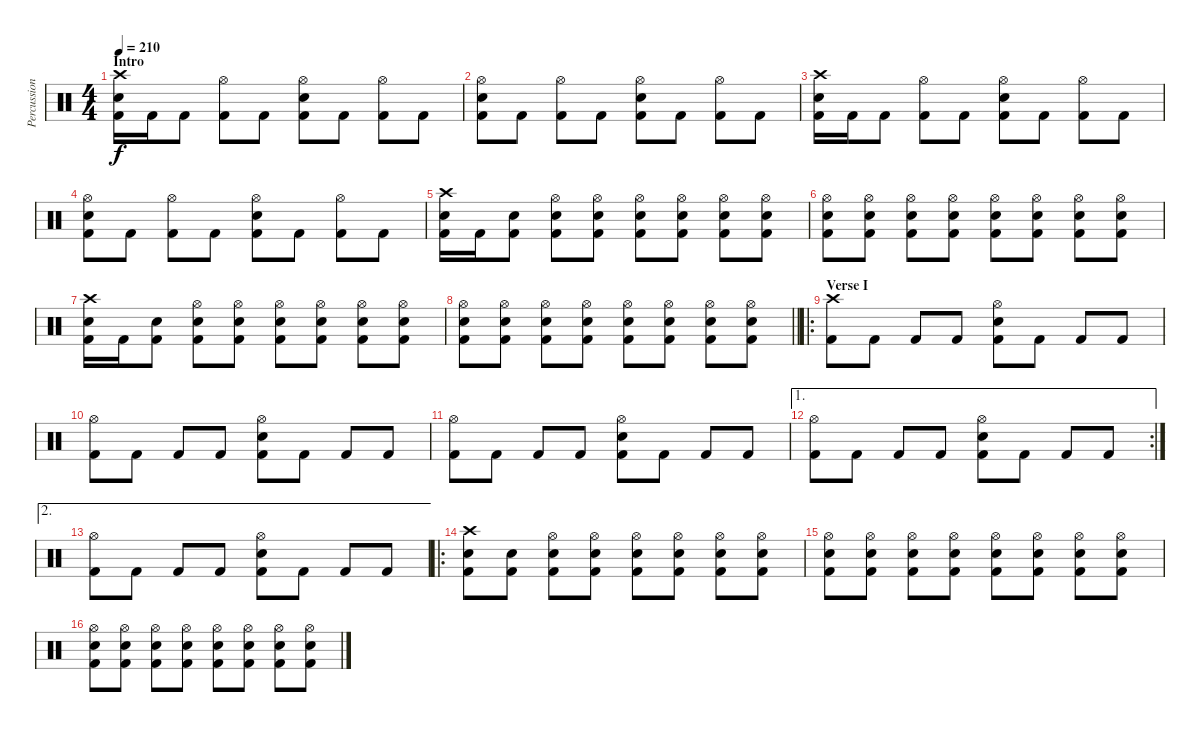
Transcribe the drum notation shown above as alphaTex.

\track ("Percussion" "Percussion") {instrument percussion}
\staff {score}
\articulation defaults
\ts (4 4)
\section ("" "Intro")
\tempo 210
\clef neutral
\ks c
("Crash high (hit)" "Snare (hit) 2" "Kick (hit) 2").16{dy f} "Kick (hit) 2".16 "Kick (hit) 2".8 ("Hi-Hat (open)" "Kick (hit) 2").8 "Kick (hit) 2".8 ("Hi-Hat (open)" "Snare (hit) 2" "Kick (hit) 2").8 "Kick (hit) 2".8 ("Hi-Hat (open)" "Kick (hit) 2").8 "Kick (hit) 2".8 |
("Hi-Hat (open)" "Snare (hit) 2" "Kick (hit) 2").8 "Kick (hit) 2".8 ("Hi-Hat (open)" "Kick (hit) 2").8 "Kick (hit) 2".8 ("Hi-Hat (open)" "Snare (hit) 2" "Kick (hit) 2").8 "Kick (hit) 2".8 ("Hi-Hat (open)" "Kick (hit) 2").8 "Kick (hit) 2".8 |
("Crash high (hit)" "Snare (hit) 2" "Kick (hit) 2").16 "Kick (hit) 2".16 "Kick (hit) 2".8 ("Hi-Hat (open)" "Kick (hit) 2").8 "Kick (hit) 2".8 ("Hi-Hat (open)" "Snare (hit) 2" "Kick (hit) 2").8 "Kick (hit) 2".8 ("Hi-Hat (open)" "Kick (hit) 2").8 "Kick (hit) 2".8 |
("Hi-Hat (open)" "Snare (hit) 2" "Kick (hit) 2").8 "Kick (hit) 2".8 ("Hi-Hat (open)" "Kick (hit) 2").8 "Kick (hit) 2".8 ("Hi-Hat (open)" "Snare (hit) 2" "Kick (hit) 2").8 "Kick (hit) 2".8 ("Hi-Hat (open)" "Kick (hit) 2").8 "Kick (hit) 2".8 |
("Crash high (hit)" "Snare (hit) 2" "Kick (hit) 2").16 "Kick (hit) 2".16 ("Snare (hit) 2" "Kick (hit) 2").8 ("Hi-Hat (open)" "Snare (hit) 2" "Kick (hit) 2").8 ("Hi-Hat (open)" "Snare (hit) 2" "Kick (hit) 2").8 ("Hi-Hat (open)" "Snare (hit) 2" "Kick (hit) 2").8 ("Hi-Hat (open)" "Snare (hit) 2" "Kick (hit) 2").8 ("Hi-Hat (open)" "Snare (hit) 2" "Kick (hit) 2").8 ("Hi-Hat (open)" "Snare (hit) 2" "Kick (hit) 2").8 |
("Hi-Hat (open)" "Snare (hit) 2" "Kick (hit) 2").8 ("Hi-Hat (open)" "Snare (hit) 2" "Kick (hit) 2").8 ("Hi-Hat (open)" "Snare (hit) 2" "Kick (hit) 2").8 ("Hi-Hat (open)" "Snare (hit) 2" "Kick (hit) 2").8 ("Hi-Hat (open)" "Snare (hit) 2" "Kick (hit) 2").8 ("Hi-Hat (open)" "Snare (hit) 2" "Kick (hit) 2").8 ("Hi-Hat (open)" "Snare (hit) 2" "Kick (hit) 2").8 ("Hi-Hat (open)" "Snare (hit) 2" "Kick (hit) 2").8 |
("Crash high (hit)" "Snare (hit) 2" "Kick (hit) 2").16 "Kick (hit) 2".16 ("Snare (hit) 2" "Kick (hit) 2").8 ("Hi-Hat (open)" "Snare (hit) 2" "Kick (hit) 2").8 ("Hi-Hat (open)" "Snare (hit) 2" "Kick (hit) 2").8 ("Hi-Hat (open)" "Snare (hit) 2" "Kick (hit) 2").8 ("Hi-Hat (open)" "Snare (hit) 2" "Kick (hit) 2").8 ("Hi-Hat (open)" "Snare (hit) 2" "Kick (hit) 2").8 ("Hi-Hat (open)" "Snare (hit) 2" "Kick (hit) 2").8 |
\barLineRight lightlight
("Hi-Hat (open)" "Snare (hit) 2" "Kick (hit) 2").8 ("Hi-Hat (open)" "Snare (hit) 2" "Kick (hit) 2").8 ("Hi-Hat (open)" "Snare (hit) 2" "Kick (hit) 2").8 ("Hi-Hat (open)" "Snare (hit) 2" "Kick (hit) 2").8 ("Hi-Hat (open)" "Snare (hit) 2" "Kick (hit) 2").8 ("Hi-Hat (open)" "Snare (hit) 2" "Kick (hit) 2").8 ("Hi-Hat (open)" "Snare (hit) 2" "Kick (hit) 2").8 ("Hi-Hat (open)" "Snare (hit) 2" "Kick (hit) 2").8 |
\ro
\section ("" "Verse I")
("Crash high (hit)" "Kick (hit) 2").8 "Kick (hit) 2".8 "Kick (hit) 2".8 "Kick (hit) 2".8 ("Hi-Hat (open)" "Snare (hit) 2" "Kick (hit) 2").8 "Kick (hit) 2".8 "Kick (hit) 2".8 "Kick (hit) 2".8 |
("Hi-Hat (open)" "Kick (hit) 2").8 "Kick (hit) 2".8 "Kick (hit) 2".8 "Kick (hit) 2".8 ("Hi-Hat (open)" "Snare (hit) 2" "Kick (hit) 2").8 "Kick (hit) 2".8 "Kick (hit) 2".8 "Kick (hit) 2".8 |
("Hi-Hat (open)" "Kick (hit) 2").8 "Kick (hit) 2".8 "Kick (hit) 2".8 "Kick (hit) 2".8 ("Hi-Hat (open)" "Snare (hit) 2" "Kick (hit) 2").8 "Kick (hit) 2".8 "Kick (hit) 2".8 "Kick (hit) 2".8 |
\ae 1
\rc 2
("Hi-Hat (open)" "Kick (hit) 2").8 "Kick (hit) 2".8 "Kick (hit) 2".8 "Kick (hit) 2".8 ("Hi-Hat (open)" "Snare (hit) 2" "Kick (hit) 2").8 "Kick (hit) 2".8 "Kick (hit) 2".8 "Kick (hit) 2".8 |
\ae 2
("Hi-Hat (open)" "Kick (hit) 2").8 "Kick (hit) 2".8 "Kick (hit) 2".8 "Kick (hit) 2".8 ("Hi-Hat (open)" "Snare (hit) 2" "Kick (hit) 2").8 "Kick (hit) 2".8 "Kick (hit) 2".8 "Kick (hit) 2".8 |
\ro
("Crash high (hit)" "Snare (hit) 2" "Kick (hit) 2").8 ("Snare (hit) 2" "Kick (hit) 2").8 ("Hi-Hat (open)" "Snare (hit) 2" "Kick (hit) 2").8 ("Hi-Hat (open)" "Snare (hit) 2" "Kick (hit) 2").8 ("Hi-Hat (open)" "Snare (hit) 2" "Kick (hit) 2").8 ("Hi-Hat (open)" "Snare (hit) 2" "Kick (hit) 2").8 ("Hi-Hat (open)" "Snare (hit) 2" "Kick (hit) 2").8 ("Hi-Hat (open)" "Snare (hit) 2" "Kick (hit) 2").8 |
("Hi-Hat (open)" "Snare (hit) 2" "Kick (hit) 2").8 ("Hi-Hat (open)" "Snare (hit) 2" "Kick (hit) 2").8 ("Hi-Hat (open)" "Snare (hit) 2" "Kick (hit) 2").8 ("Hi-Hat (open)" "Snare (hit) 2" "Kick (hit) 2").8 ("Hi-Hat (open)" "Snare (hit) 2" "Kick (hit) 2").8 ("Hi-Hat (open)" "Snare (hit) 2" "Kick (hit) 2").8 ("Hi-Hat (open)" "Snare (hit) 2" "Kick (hit) 2").8 ("Hi-Hat (open)" "Snare (hit) 2" "Kick (hit) 2").8 |
("Hi-Hat (open)" "Snare (hit) 2" "Kick (hit) 2").8 ("Hi-Hat (open)" "Snare (hit) 2" "Kick (hit) 2").8 ("Hi-Hat (open)" "Snare (hit) 2" "Kick (hit) 2").8 ("Hi-Hat (open)" "Snare (hit) 2" "Kick (hit) 2").8 ("Hi-Hat (open)" "Snare (hit) 2" "Kick (hit) 2").8 ("Hi-Hat (open)" "Snare (hit) 2" "Kick (hit) 2").8 ("Hi-Hat (open)" "Snare (hit) 2" "Kick (hit) 2").8 ("Hi-Hat (open)" "Snare (hit) 2" "Kick (hit) 2").8
